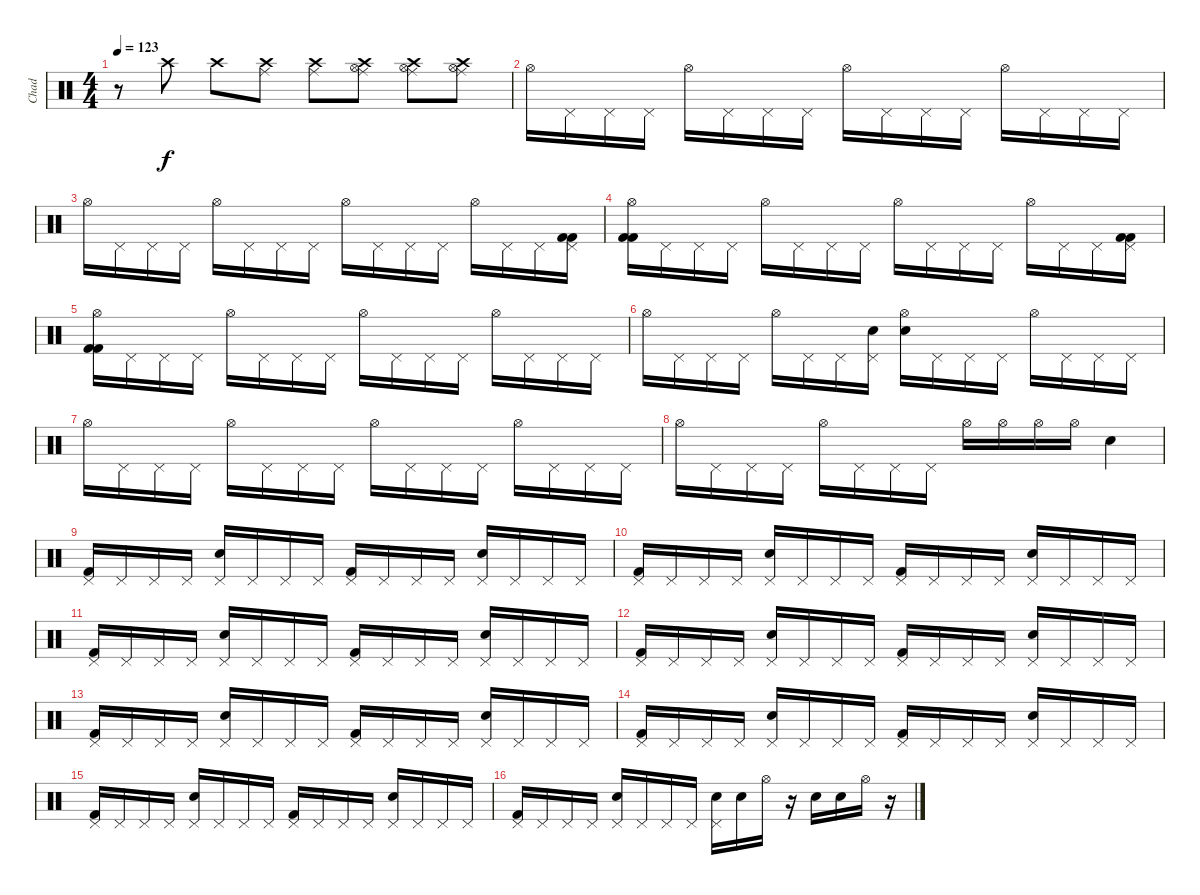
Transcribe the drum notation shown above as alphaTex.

\track ("Chad" "Chad") {instrument percussion}
\staff {score}
\articulation defaults
\ts (4 4)
\tempo 123
\clef neutral
\ks c
r.8{dy f} "Crash high (hit)".8 "Crash high (hit)".8 ("Ride (middle)" "Crash high (hit)").8 ("Ride (middle)" "Crash high (hit)").8 ("Ride (middle)" "Crash high (hit)" "Hi-Hat (open)").8 ("Ride (middle)" "Crash high (hit)" "Hi-Hat (open)").8 ("Ride (middle)" "Crash high (hit)" "Hi-Hat (open)").8 |
"Hi-Hat (open)".16 "Pedal Hi-Hat (hit)".16 "Pedal Hi-Hat (hit)".16 "Pedal Hi-Hat (hit)".16 "Hi-Hat (open)".16 "Pedal Hi-Hat (hit)".16 "Pedal Hi-Hat (hit)".16 "Pedal Hi-Hat (hit)".16 "Hi-Hat (open)".16 "Pedal Hi-Hat (hit)".16 "Pedal Hi-Hat (hit)".16 "Pedal Hi-Hat (hit)".16 "Hi-Hat (open)".16 "Pedal Hi-Hat (hit)".16 "Pedal Hi-Hat (hit)".16 "Pedal Hi-Hat (hit)".16 |
"Hi-Hat (open)".16 "Pedal Hi-Hat (hit)".16 "Pedal Hi-Hat (hit)".16 "Pedal Hi-Hat (hit)".16 "Hi-Hat (open)".16 "Pedal Hi-Hat (hit)".16 "Pedal Hi-Hat (hit)".16 "Pedal Hi-Hat (hit)".16 "Hi-Hat (open)".16 "Pedal Hi-Hat (hit)".16 "Pedal Hi-Hat (hit)".16 "Pedal Hi-Hat (hit)".16 "Hi-Hat (open)".16 "Pedal Hi-Hat (hit)".16 "Pedal Hi-Hat (hit)".16 ("Pedal Hi-Hat (hit)" "Kick (hit) 2" "Kick (hit) 2").16 |
("Hi-Hat (open)" "Kick (hit) 2" "Kick (hit) 2").16 "Pedal Hi-Hat (hit)".16 "Pedal Hi-Hat (hit)".16 "Pedal Hi-Hat (hit)".16 "Hi-Hat (open)".16 "Pedal Hi-Hat (hit)".16 "Pedal Hi-Hat (hit)".16 "Pedal Hi-Hat (hit)".16 "Hi-Hat (open)".16 "Pedal Hi-Hat (hit)".16 "Pedal Hi-Hat (hit)".16 "Pedal Hi-Hat (hit)".16 "Hi-Hat (open)".16 "Pedal Hi-Hat (hit)".16 "Pedal Hi-Hat (hit)".16 ("Pedal Hi-Hat (hit)" "Kick (hit) 2" "Kick (hit) 2").16 |
("Hi-Hat (open)" "Kick (hit) 2" "Kick (hit) 2").16 "Pedal Hi-Hat (hit)".16 "Pedal Hi-Hat (hit)".16 "Pedal Hi-Hat (hit)".16 "Hi-Hat (open)".16 "Pedal Hi-Hat (hit)".16 "Pedal Hi-Hat (hit)".16 "Pedal Hi-Hat (hit)".16 "Hi-Hat (open)".16 "Pedal Hi-Hat (hit)".16 "Pedal Hi-Hat (hit)".16 "Pedal Hi-Hat (hit)".16 "Hi-Hat (open)".16 "Pedal Hi-Hat (hit)".16 "Pedal Hi-Hat (hit)".16 "Pedal Hi-Hat (hit)".16 |
"Hi-Hat (open)".16 "Pedal Hi-Hat (hit)".16 "Pedal Hi-Hat (hit)".16 "Pedal Hi-Hat (hit)".16 "Hi-Hat (open)".16 "Pedal Hi-Hat (hit)".16 "Pedal Hi-Hat (hit)".16 ("Pedal Hi-Hat (hit)" "Electric Snare (hit)").16 ("Hi-Hat (open)" "Electric Snare (hit)").16 "Pedal Hi-Hat (hit)".16 "Pedal Hi-Hat (hit)".16 "Pedal Hi-Hat (hit)".16 "Hi-Hat (open)".16 "Pedal Hi-Hat (hit)".16 "Pedal Hi-Hat (hit)".16 "Pedal Hi-Hat (hit)".16 |
"Hi-Hat (open)".16 "Pedal Hi-Hat (hit)".16 "Pedal Hi-Hat (hit)".16 "Pedal Hi-Hat (hit)".16 "Hi-Hat (open)".16 "Pedal Hi-Hat (hit)".16 "Pedal Hi-Hat (hit)".16 "Pedal Hi-Hat (hit)".16 "Hi-Hat (open)".16 "Pedal Hi-Hat (hit)".16 "Pedal Hi-Hat (hit)".16 "Pedal Hi-Hat (hit)".16 "Hi-Hat (open)".16 "Pedal Hi-Hat (hit)".16 "Pedal Hi-Hat (hit)".16 "Pedal Hi-Hat (hit)".16 |
"Hi-Hat (open)".16 "Pedal Hi-Hat (hit)".16 "Pedal Hi-Hat (hit)".16 "Pedal Hi-Hat (hit)".16 "Hi-Hat (open)".16 "Pedal Hi-Hat (hit)".16 "Pedal Hi-Hat (hit)".16 "Pedal Hi-Hat (hit)".16 "Hi-Hat (open)".16 "Hi-Hat (open)".16 "Hi-Hat (open)".16 "Hi-Hat (open)".16 "Electric Snare (hit)".4 |
("Pedal Hi-Hat (hit)" "Kick (hit) 2").16 "Pedal Hi-Hat (hit)".16 "Pedal Hi-Hat (hit)".16 "Pedal Hi-Hat (hit)".16 ("Pedal Hi-Hat (hit)" "Electric Snare (hit)").16 "Pedal Hi-Hat (hit)".16 "Pedal Hi-Hat (hit)".16 "Pedal Hi-Hat (hit)".16 ("Pedal Hi-Hat (hit)" "Kick (hit) 2").16 "Pedal Hi-Hat (hit)".16 "Pedal Hi-Hat (hit)".16 "Pedal Hi-Hat (hit)".16 ("Pedal Hi-Hat (hit)" "Electric Snare (hit)").16 "Pedal Hi-Hat (hit)".16 "Pedal Hi-Hat (hit)".16 "Pedal Hi-Hat (hit)".16 |
("Pedal Hi-Hat (hit)" "Kick (hit) 2").16 "Pedal Hi-Hat (hit)".16 "Pedal Hi-Hat (hit)".16 "Pedal Hi-Hat (hit)".16 ("Pedal Hi-Hat (hit)" "Electric Snare (hit)").16 "Pedal Hi-Hat (hit)".16 "Pedal Hi-Hat (hit)".16 "Pedal Hi-Hat (hit)".16 ("Pedal Hi-Hat (hit)" "Kick (hit) 2").16 "Pedal Hi-Hat (hit)".16 "Pedal Hi-Hat (hit)".16 "Pedal Hi-Hat (hit)".16 ("Pedal Hi-Hat (hit)" "Electric Snare (hit)").16 "Pedal Hi-Hat (hit)".16 "Pedal Hi-Hat (hit)".16 "Pedal Hi-Hat (hit)".16 |
("Pedal Hi-Hat (hit)" "Kick (hit) 2").16 "Pedal Hi-Hat (hit)".16 "Pedal Hi-Hat (hit)".16 "Pedal Hi-Hat (hit)".16 ("Pedal Hi-Hat (hit)" "Electric Snare (hit)").16 "Pedal Hi-Hat (hit)".16 "Pedal Hi-Hat (hit)".16 "Pedal Hi-Hat (hit)".16 ("Pedal Hi-Hat (hit)" "Kick (hit) 2").16 "Pedal Hi-Hat (hit)".16 "Pedal Hi-Hat (hit)".16 "Pedal Hi-Hat (hit)".16 ("Pedal Hi-Hat (hit)" "Electric Snare (hit)").16 "Pedal Hi-Hat (hit)".16 "Pedal Hi-Hat (hit)".16 "Pedal Hi-Hat (hit)".16 |
("Pedal Hi-Hat (hit)" "Kick (hit) 2").16 "Pedal Hi-Hat (hit)".16 "Pedal Hi-Hat (hit)".16 "Pedal Hi-Hat (hit)".16 ("Pedal Hi-Hat (hit)" "Electric Snare (hit)").16 "Pedal Hi-Hat (hit)".16 "Pedal Hi-Hat (hit)".16 "Pedal Hi-Hat (hit)".16 ("Pedal Hi-Hat (hit)" "Kick (hit) 2").16 "Pedal Hi-Hat (hit)".16 "Pedal Hi-Hat (hit)".16 "Pedal Hi-Hat (hit)".16 ("Pedal Hi-Hat (hit)" "Electric Snare (hit)").16 "Pedal Hi-Hat (hit)".16 "Pedal Hi-Hat (hit)".16 "Pedal Hi-Hat (hit)".16 |
("Pedal Hi-Hat (hit)" "Kick (hit) 2").16 "Pedal Hi-Hat (hit)".16 "Pedal Hi-Hat (hit)".16 "Pedal Hi-Hat (hit)".16 ("Pedal Hi-Hat (hit)" "Electric Snare (hit)").16 "Pedal Hi-Hat (hit)".16 "Pedal Hi-Hat (hit)".16 "Pedal Hi-Hat (hit)".16 ("Pedal Hi-Hat (hit)" "Kick (hit) 2").16 "Pedal Hi-Hat (hit)".16 "Pedal Hi-Hat (hit)".16 "Pedal Hi-Hat (hit)".16 ("Pedal Hi-Hat (hit)" "Electric Snare (hit)").16 "Pedal Hi-Hat (hit)".16 "Pedal Hi-Hat (hit)".16 "Pedal Hi-Hat (hit)".16 |
("Pedal Hi-Hat (hit)" "Kick (hit) 2").16 "Pedal Hi-Hat (hit)".16 "Pedal Hi-Hat (hit)".16 "Pedal Hi-Hat (hit)".16 ("Pedal Hi-Hat (hit)" "Electric Snare (hit)").16 "Pedal Hi-Hat (hit)".16 "Pedal Hi-Hat (hit)".16 "Pedal Hi-Hat (hit)".16 ("Pedal Hi-Hat (hit)" "Kick (hit) 2").16 "Pedal Hi-Hat (hit)".16 "Pedal Hi-Hat (hit)".16 "Pedal Hi-Hat (hit)".16 ("Pedal Hi-Hat (hit)" "Electric Snare (hit)").16 "Pedal Hi-Hat (hit)".16 "Pedal Hi-Hat (hit)".16 "Pedal Hi-Hat (hit)".16 |
("Pedal Hi-Hat (hit)" "Kick (hit) 2").16 "Pedal Hi-Hat (hit)".16 "Pedal Hi-Hat (hit)".16 "Pedal Hi-Hat (hit)".16 ("Pedal Hi-Hat (hit)" "Electric Snare (hit)").16 "Pedal Hi-Hat (hit)".16 "Pedal Hi-Hat (hit)".16 "Pedal Hi-Hat (hit)".16 ("Pedal Hi-Hat (hit)" "Kick (hit) 2").16 "Pedal Hi-Hat (hit)".16 "Pedal Hi-Hat (hit)".16 "Pedal Hi-Hat (hit)".16 ("Pedal Hi-Hat (hit)" "Electric Snare (hit)").16 "Pedal Hi-Hat (hit)".16 "Pedal Hi-Hat (hit)".16 "Pedal Hi-Hat (hit)".16 |
("Pedal Hi-Hat (hit)" "Kick (hit) 2").16 "Pedal Hi-Hat (hit)".16 "Pedal Hi-Hat (hit)".16 "Pedal Hi-Hat (hit)".16 ("Pedal Hi-Hat (hit)" "Electric Snare (hit)").16 "Pedal Hi-Hat (hit)".16 "Pedal Hi-Hat (hit)".16 "Pedal Hi-Hat (hit)".16 ("Pedal Hi-Hat (hit)" "Electric Snare (hit)").16 "Electric Snare (hit)".16 "Hi-Hat (open)".16 r.16 "Electric Snare (hit)".16 "Electric Snare (hit)".16 "Hi-Hat (open)".16 r.16
